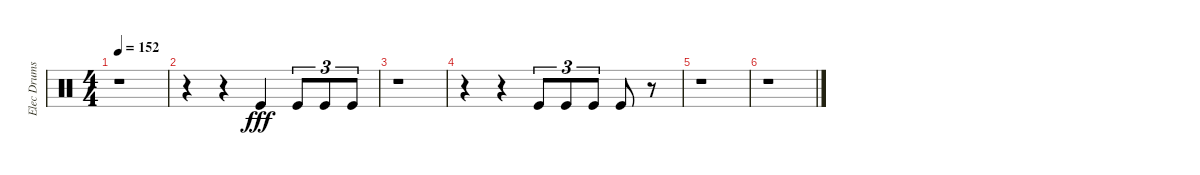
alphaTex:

\track ("Elec Drums" "Elec Drums") {instrument percussion}
\staff {score}
\articulation defaults
\ts (4 4)
\tempo 152
\clef neutral
\ks c
r.1{dy fff} |
r.4 r.4 "Kick (hit)".4 "Kick (hit)".8{tu (3 2)} "Kick (hit)".8{tu (3 2)} "Kick (hit)".8{tu (3 2)} |
r.1 |
r.4 r.4 "Kick (hit)".8{tu (3 2)} "Kick (hit)".8{tu (3 2)} "Kick (hit)".8{tu (3 2)} "Kick (hit)".8 r.8 |
r.1 |
r.1
